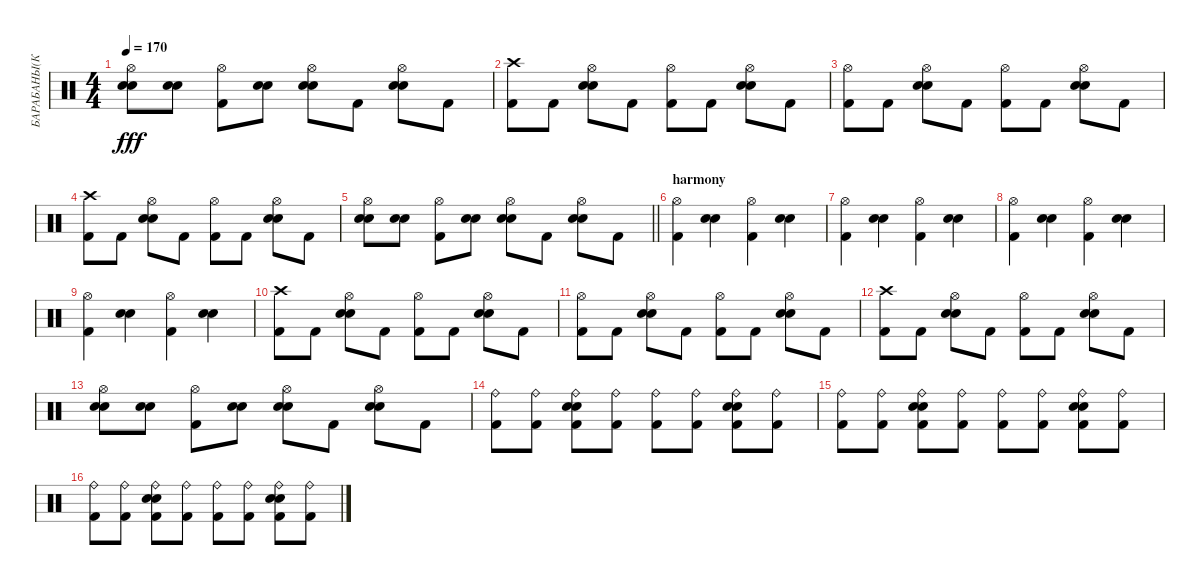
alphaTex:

\track ("БАРАБАНЫ(КАРДАН)" "БАРАБАНЫ(К") {instrument percussion}
\staff {score}
\articulation defaults
\ts (4 4)
\tempo 170
\clef neutral
\ks c
("Electric Snare (hit)" "Snare (hit) 2" "Hi-Hat (open)").8{dy fff} ("Electric Snare (hit)" "Snare (hit) 2").8 ("Kick (hit) 2" "Hi-Hat (open)").8 ("Electric Snare (hit)" "Snare (hit) 2").8 ("Electric Snare (hit)" "Snare (hit) 2" "Hi-Hat (open)").8 "Kick (hit) 2".8 ("Snare (hit) 2" "Electric Snare (hit)" "Hi-Hat (open)").8 "Kick (hit) 2".8 |
("Kick (hit) 2" "Crash high (hit)").8 "Kick (hit) 2".8 ("Snare (hit) 2" "Electric Snare (hit)" "Hi-Hat (open)").8 "Kick (hit) 2".8 ("Kick (hit) 2" "Hi-Hat (open)").8 "Kick (hit) 2".8 ("Snare (hit) 2" "Electric Snare (hit)" "Hi-Hat (open)").8 "Kick (hit) 2".8 |
("Kick (hit) 2" "Hi-Hat (open)").8 "Kick (hit) 2".8 ("Snare (hit) 2" "Electric Snare (hit)" "Hi-Hat (open)").8 "Kick (hit) 2".8 ("Kick (hit) 2" "Hi-Hat (open)").8 "Kick (hit) 2".8 ("Snare (hit) 2" "Electric Snare (hit)" "Hi-Hat (open)").8 "Kick (hit) 2".8 |
("Kick (hit) 2" "Crash high (hit)").8 "Kick (hit) 2".8 ("Snare (hit) 2" "Electric Snare (hit)" "Hi-Hat (open)").8 "Kick (hit) 2".8 ("Kick (hit) 2" "Hi-Hat (open)").8 "Kick (hit) 2".8 ("Snare (hit) 2" "Electric Snare (hit)" "Hi-Hat (open)").8 "Kick (hit) 2".8 |
\barLineRight lightlight
("Electric Snare (hit)" "Snare (hit) 2" "Hi-Hat (open)").8 ("Electric Snare (hit)" "Snare (hit) 2").8 ("Kick (hit) 2" "Hi-Hat (open)").8 ("Electric Snare (hit)" "Snare (hit) 2").8 ("Electric Snare (hit)" "Snare (hit) 2" "Hi-Hat (open)").8 "Kick (hit) 2".8 ("Snare (hit) 2" "Electric Snare (hit)" "Hi-Hat (open)").8 "Kick (hit) 2".8 |
\section ("" "harmony")
("Kick (hit) 2" "Hi-Hat (open)").4 ("Snare (hit) 2" "Electric Snare (hit)").4 ("Kick (hit) 2" "Hi-Hat (open)").4 ("Electric Snare (hit)" "Snare (hit) 2").4 |
("Kick (hit) 2" "Hi-Hat (open)").4 ("Snare (hit) 2" "Electric Snare (hit)").4 ("Kick (hit) 2" "Hi-Hat (open)").4 ("Electric Snare (hit)" "Snare (hit) 2").4 |
("Kick (hit) 2" "Hi-Hat (open)").4 ("Snare (hit) 2" "Electric Snare (hit)").4 ("Kick (hit) 2" "Hi-Hat (open)").4 ("Electric Snare (hit)" "Snare (hit) 2").4 |
("Kick (hit) 2" "Hi-Hat (open)").4 ("Snare (hit) 2" "Electric Snare (hit)").4 ("Kick (hit) 2" "Hi-Hat (open)").4 ("Electric Snare (hit)" "Snare (hit) 2").4 |
("Kick (hit) 2" "Crash high (hit)").8 "Kick (hit) 2".8 ("Snare (hit) 2" "Electric Snare (hit)" "Hi-Hat (open)").8 "Kick (hit) 2".8 ("Kick (hit) 2" "Hi-Hat (open)").8 "Kick (hit) 2".8 ("Snare (hit) 2" "Electric Snare (hit)" "Hi-Hat (open)").8 "Kick (hit) 2".8 |
("Kick (hit) 2" "Hi-Hat (open)").8 "Kick (hit) 2".8 ("Snare (hit) 2" "Electric Snare (hit)" "Hi-Hat (open)").8 "Kick (hit) 2".8 ("Kick (hit) 2" "Hi-Hat (open)").8 "Kick (hit) 2".8 ("Snare (hit) 2" "Electric Snare (hit)" "Hi-Hat (open)").8 "Kick (hit) 2".8 |
("Kick (hit) 2" "Crash high (hit)").8 "Kick (hit) 2".8 ("Snare (hit) 2" "Electric Snare (hit)" "Hi-Hat (open)").8 "Kick (hit) 2".8 ("Kick (hit) 2" "Hi-Hat (open)").8 "Kick (hit) 2".8 ("Snare (hit) 2" "Electric Snare (hit)" "Hi-Hat (open)").8 "Kick (hit) 2".8 |
("Electric Snare (hit)" "Snare (hit) 2" "Hi-Hat (open)").8 ("Electric Snare (hit)" "Snare (hit) 2").8 ("Kick (hit) 2" "Hi-Hat (open)").8 ("Electric Snare (hit)" "Snare (hit) 2").8 ("Electric Snare (hit)" "Snare (hit) 2" "Hi-Hat (open)").8 "Kick (hit) 2".8 ("Snare (hit) 2" "Electric Snare (hit)" "Hi-Hat (open)").8 "Kick (hit) 2".8 |
("Kick (hit) 2" "Ride (bell)").8 ("Kick (hit) 2" "Ride (bell)").8 ("Kick (hit) 2" "Snare (hit) 2" "Electric Snare (hit)" "Ride (bell)").8 ("Kick (hit) 2" "Ride (bell)").8 ("Kick (hit) 2" "Ride (bell)").8 ("Kick (hit) 2" "Ride (bell)").8 ("Kick (hit) 2" "Snare (hit) 2" "Electric Snare (hit)" "Ride (bell)").8 ("Kick (hit) 2" "Ride (bell)").8 |
("Kick (hit) 2" "Ride (bell)").8 ("Kick (hit) 2" "Ride (bell)").8 ("Kick (hit) 2" "Snare (hit) 2" "Electric Snare (hit)" "Ride (bell)").8 ("Kick (hit) 2" "Ride (bell)").8 ("Kick (hit) 2" "Ride (bell)").8 ("Kick (hit) 2" "Ride (bell)").8 ("Kick (hit) 2" "Snare (hit) 2" "Electric Snare (hit)" "Ride (bell)").8 ("Kick (hit) 2" "Ride (bell)").8 |
("Kick (hit) 2" "Ride (bell)").8 ("Kick (hit) 2" "Ride (bell)").8 ("Kick (hit) 2" "Snare (hit) 2" "Electric Snare (hit)" "Ride (bell)").8 ("Kick (hit) 2" "Ride (bell)").8 ("Kick (hit) 2" "Ride (bell)").8 ("Kick (hit) 2" "Ride (bell)").8 ("Kick (hit) 2" "Snare (hit) 2" "Electric Snare (hit)" "Ride (bell)").8 ("Kick (hit) 2" "Ride (bell)").8
